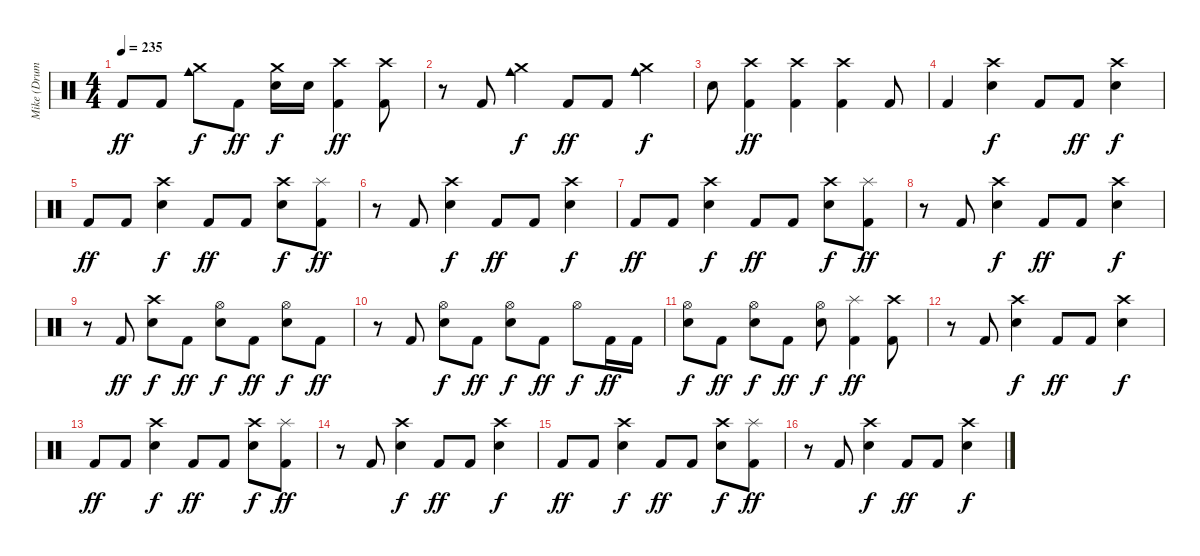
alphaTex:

\track ("Mike (Drums)" "Mike (Drum") {instrument percussion}
\staff {score}
\articulation defaults
\ts (4 4)
\tempo 235
\clef neutral
\ks c "Kick (hit) 2".8{dy ff} "Kick (hit) 2".8
("Crash medium (hit)" "Cowbell medium (hit)").8{dy f} "Kick (hit) 2".8{dy ff} ("Crash medium (hit)" "Electric Snare (hit)").16{dy f} "Electric Snare (hit)".16 ("Crash high (hit)" "Kick (hit) 2").4{dy ff} ("Crash high (hit)" "Kick (hit) 2").8 |
r.8 "Kick (hit) 2".8 ("Crash medium (hit)" "Cowbell medium (hit)").4{dy f} "Kick (hit) 2".8{dy ff} "Kick (hit) 2".8 ("Crash medium (hit)" "Cowbell medium (hit)").4{dy f} |
"Electric Snare (hit)".8 ("Crash high (hit)" "Kick (hit) 2").4{dy ff} ("Crash high (hit)" "Kick (hit) 2").4 ("Crash high (hit)" "Kick (hit) 2").4 "Kick (hit) 2".8 |
"Kick (hit) 2".4 ("Crash high (hit)" "Electric Snare (hit)").4{dy f} "Kick (hit) 2".8 "Kick (hit) 2".8{dy ff} ("Crash high (hit)" "Electric Snare (hit)").4{dy f} |
"Kick (hit) 2".8{dy ff} "Kick (hit) 2".8 ("Crash high (hit)" "Electric Snare (hit)").4{dy f} "Kick (hit) 2".8{dy ff} "Kick (hit) 2".8 ("Crash high (hit)" "Electric Snare (hit)").8{dy f} ("Splash (hit)" "Kick (hit) 2").8{dy ff} |
r.8 "Kick (hit) 2".8 ("Crash high (hit)" "Electric Snare (hit)").4{dy f} "Kick (hit) 2".8{dy ff} "Kick (hit) 2".8 ("Crash high (hit)" "Electric Snare (hit)").4{dy f} |
"Kick (hit) 2".8{dy ff} "Kick (hit) 2".8 ("Crash high (hit)" "Electric Snare (hit)").4{dy f} "Kick (hit) 2".8{dy ff} "Kick (hit) 2".8 ("Crash high (hit)" "Electric Snare (hit)").8{dy f} ("Splash (hit)" "Kick (hit) 2").8{dy ff} |
r.8 "Kick (hit) 2".8 ("Crash high (hit)" "Electric Snare (hit)").4{dy f} "Kick (hit) 2".8{dy ff} "Kick (hit) 2".8 ("Crash high (hit)" "Electric Snare (hit)").4{dy f} |
r.8 "Kick (hit) 2".8{dy ff} ("Crash high (hit)" "Electric Snare (hit)").8{dy f} "Kick (hit) 2".8{dy ff} ("Hi-Hat (open)" "Electric Snare (hit)").8{dy f} "Kick (hit) 2".8{dy ff} ("Hi-Hat (open)" "Electric Snare (hit)").8{dy f} "Kick (hit) 2".8{dy ff} |
r.8 "Kick (hit) 2".8 ("Hi-Hat (open)" "Electric Snare (hit)").8{dy f} "Kick (hit) 2".8{dy ff} ("Hi-Hat (open)" "Electric Snare (hit)").8{dy f} "Kick (hit) 2".8{dy ff} "Hi-Hat (open)".8{dy f} "Kick (hit) 2".16{dy ff} "Kick (hit) 2".16 |
("Hi-Hat (open)" "Electric Snare (hit)").8{dy f} "Kick (hit) 2".8{dy ff} ("Hi-Hat (open)" "Electric Snare (hit)").8{dy f} "Kick (hit) 2".8{dy ff} ("Hi-Hat (open)" "Electric Snare (hit)").8{dy f} ("Splash (hit)" "Kick (hit) 2").4{dy ff} ("Crash high (hit)" "Kick (hit) 2").8 |
r.8 "Kick (hit) 2".8 ("Crash high (hit)" "Electric Snare (hit)").4{dy f} "Kick (hit) 2".8{dy ff} "Kick (hit) 2".8 ("Crash high (hit)" "Electric Snare (hit)").4{dy f} |
"Kick (hit) 2".8{dy ff} "Kick (hit) 2".8 ("Crash high (hit)" "Electric Snare (hit)").4{dy f} "Kick (hit) 2".8{dy ff} "Kick (hit) 2".8 ("Crash high (hit)" "Electric Snare (hit)").8{dy f} ("Splash (hit)" "Kick (hit) 2").8{dy ff} |
r.8 "Kick (hit) 2".8 ("Crash high (hit)" "Electric Snare (hit)").4{dy f} "Kick (hit) 2".8{dy ff} "Kick (hit) 2".8 ("Crash high (hit)" "Electric Snare (hit)").4{dy f} |
"Kick (hit) 2".8{dy ff} "Kick (hit) 2".8 ("Crash high (hit)" "Electric Snare (hit)").4{dy f} "Kick (hit) 2".8{dy ff} "Kick (hit) 2".8 ("Crash high (hit)" "Electric Snare (hit)").8{dy f} ("Splash (hit)" "Kick (hit) 2").8{dy ff} |
r.8 "Kick (hit) 2".8 ("Crash high (hit)" "Electric Snare (hit)").4{dy f} "Kick (hit) 2".8{dy ff} "Kick (hit) 2".8 ("Crash high (hit)" "Electric Snare (hit)").4{dy f}
